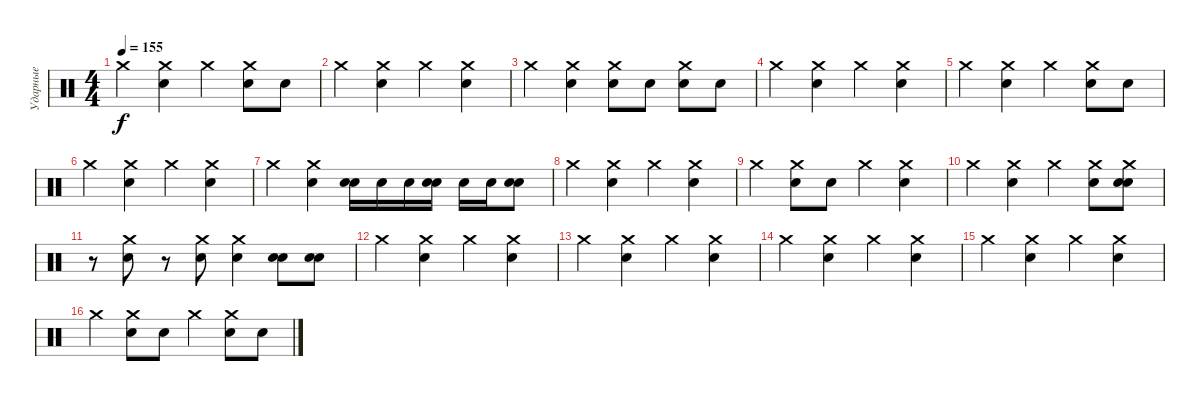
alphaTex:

\track ("Ударные" "Ударные") {instrument percussion}
\staff {score}
\articulation defaults
\ts (4 4)
\tempo 155
\clef neutral
\ks c "Crash medium (hit)".4{dy f}
("Crash medium (hit)" "Electric Snare (hit)").4 "Crash medium (hit)".4 ("Crash medium (hit)" "Electric Snare (hit)").8 "Electric Snare (hit)".8 |
"Crash medium (hit)".4 ("Crash medium (hit)" "Electric Snare (hit)").4 "Crash medium (hit)".4 ("Crash medium (hit)" "Electric Snare (hit)").4 |
"Crash medium (hit)".4 ("Crash medium (hit)" "Electric Snare (hit)").4 ("Crash medium (hit)" "Electric Snare (hit)").8 "Snare (hit) 2".8 ("Crash medium (hit)" "Electric Snare (hit)").8 "Snare (hit) 2".8 |
"Crash medium (hit)".4 ("Crash medium (hit)" "Electric Snare (hit)").4 "Crash medium (hit)".4 ("Crash medium (hit)" "Electric Snare (hit)").4 |
"Crash medium (hit)".4 ("Crash medium (hit)" "Electric Snare (hit)").4 "Crash medium (hit)".4 ("Crash medium (hit)" "Electric Snare (hit)").8 "Electric Snare (hit)".8 |
"Crash medium (hit)".4 ("Crash medium (hit)" "Electric Snare (hit)").4 "Crash medium (hit)".4 ("Crash medium (hit)" "Electric Snare (hit)").4 |
"Crash medium (hit)".4 ("Crash medium (hit)" "Electric Snare (hit)").4 ("Electric Snare (hit)" "Snare (hit) 2").16 "Electric Snare (hit)".16 "Electric Snare (hit)".16 ("Electric Snare (hit)" "Snare (hit) 2").16 "Electric Snare (hit)".16 "Electric Snare (hit)".16 ("Electric Snare (hit)" "Snare (hit) 2").8 |
"Crash medium (hit)".4 ("Crash medium (hit)" "Electric Snare (hit)").4 "Crash medium (hit)".4 ("Crash medium (hit)" "Electric Snare (hit)").4 |
"Crash medium (hit)".4 ("Crash medium (hit)" "Electric Snare (hit)").8 "Electric Snare (hit)".8 "Crash medium (hit)".4 ("Crash medium (hit)" "Electric Snare (hit)").4 |
"Crash medium (hit)".4 ("Crash medium (hit)" "Electric Snare (hit)").4 "Crash medium (hit)".4 ("Crash medium (hit)" "Electric Snare (hit)").8 ("Crash medium (hit)" "Electric Snare (hit)" "Snare (hit) 2").8 |
r.8 ("Crash medium (hit)" "Electric Snare (hit)").8 r.8 ("Crash medium (hit)" "Snare (hit) 2").8 ("Crash medium (hit)" "Snare (hit) 2").4 ("Electric Snare (hit)" "Snare (hit) 2").8 ("Electric Snare (hit)" "Snare (hit) 2").8 |
"Crash medium (hit)".4 ("Crash medium (hit)" "Electric Snare (hit)").4 "Crash medium (hit)".4 ("Crash medium (hit)" "Electric Snare (hit)").4 |
"Crash medium (hit)".4 ("Crash medium (hit)" "Electric Snare (hit)").4 "Crash medium (hit)".4 ("Crash medium (hit)" "Electric Snare (hit)").4 |
"Crash medium (hit)".4 ("Crash medium (hit)" "Electric Snare (hit)").4 "Crash medium (hit)".4 ("Crash medium (hit)" "Electric Snare (hit)").4 |
"Crash medium (hit)".4 ("Crash medium (hit)" "Electric Snare (hit)").4 "Crash medium (hit)".4 ("Crash medium (hit)" "Electric Snare (hit)").4 |
"Crash medium (hit)".4 ("Crash medium (hit)" "Electric Snare (hit)").8 "Electric Snare (hit)".8 "Crash medium (hit)".4 ("Crash medium (hit)" "Electric Snare (hit)").8 "Electric Snare (hit)".8
